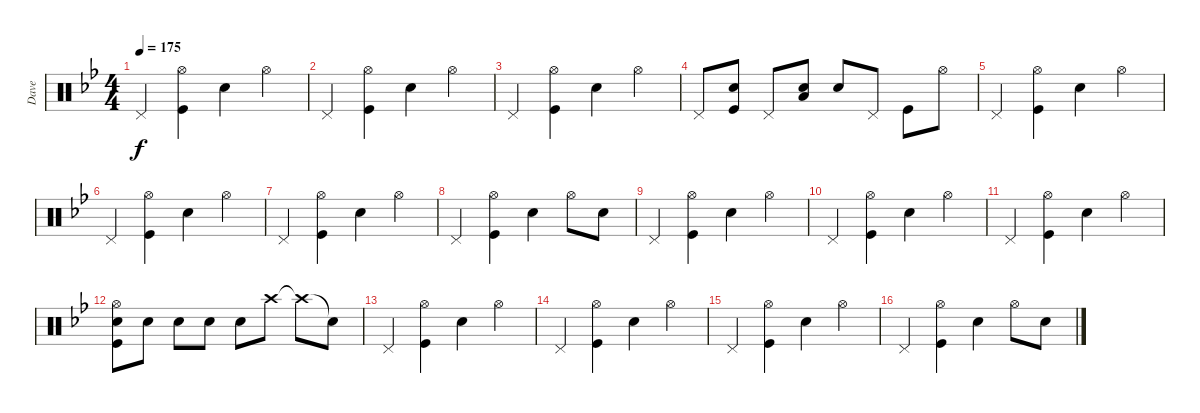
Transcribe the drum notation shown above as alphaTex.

\track ("Dave" "Dave") {instrument percussion}
\staff {score}
\articulation defaults
\ts (4 4)
\tempo 175
\clef neutral
\ks gminor "Pedal Hi-Hat (hit)".4{dy f}
("Hi-Hat (open)" "Kick (hit)").4 "Snare (hit) 2".4 "Hi-Hat (open)".4 |
"Pedal Hi-Hat (hit)".4 ("Hi-Hat (open)" "Kick (hit)").4 "Snare (hit) 2".4 "Hi-Hat (open)".4 |
"Pedal Hi-Hat (hit)".4 ("Hi-Hat (open)" "Kick (hit)").4 "Snare (hit) 2".4 "Hi-Hat (open)".4 |
"Pedal Hi-Hat (hit)".8 ("Snare (hit) 2" "Kick (hit)").8 "Pedal Hi-Hat (hit)".8 ("Low Tom (hit)" "Snare (hit) 2").8 "Snare (hit) 2".8 "Pedal Hi-Hat (hit)".8 "Kick (hit)".8 "Hi-Hat (open)".8 |
"Pedal Hi-Hat (hit)".4 ("Hi-Hat (open)" "Kick (hit)").4 "Snare (hit) 2".4 "Hi-Hat (open)".4 |
"Pedal Hi-Hat (hit)".4 ("Hi-Hat (open)" "Kick (hit)").4 "Snare (hit) 2".4 "Hi-Hat (open)".4 |
"Pedal Hi-Hat (hit)".4 ("Hi-Hat (open)" "Kick (hit)").4 "Snare (hit) 2".4 "Hi-Hat (open)".4 |
"Pedal Hi-Hat (hit)".4 ("Hi-Hat (open)" "Kick (hit)").4 "Snare (hit) 2".4 "Hi-Hat (open)".8 "Snare (hit) 2".8 |
"Pedal Hi-Hat (hit)".4 ("Hi-Hat (open)" "Kick (hit)").4 "Snare (hit) 2".4 "Hi-Hat (open)".4 |
"Pedal Hi-Hat (hit)".4 ("Hi-Hat (open)" "Kick (hit)").4 "Snare (hit) 2".4 "Hi-Hat (open)".4 |
"Pedal Hi-Hat (hit)".4 ("Hi-Hat (open)" "Kick (hit)").4 "Snare (hit) 2".4 "Hi-Hat (open)".4 |
("Hi-Hat (open)" "Snare (hit) 2" "Kick (hit)").8 "Snare (hit) 2".8 "Snare (hit) 2".8 "Snare (hit) 2".8 "Snare (hit) 2".8 "Crash high (hit)".8 "Crash high (hit)"{t}.8 "Snare (hit)"{t}.8 |
"Pedal Hi-Hat (hit)".4 ("Hi-Hat (open)" "Kick (hit)").4 "Snare (hit) 2".4 "Hi-Hat (open)".4 |
"Pedal Hi-Hat (hit)".4 ("Hi-Hat (open)" "Kick (hit)").4 "Snare (hit) 2".4 "Hi-Hat (open)".4 |
"Pedal Hi-Hat (hit)".4 ("Hi-Hat (open)" "Kick (hit)").4 "Snare (hit) 2".4 "Hi-Hat (open)".4 |
"Pedal Hi-Hat (hit)".4 ("Hi-Hat (open)" "Kick (hit)").4 "Snare (hit) 2".4 "Hi-Hat (open)".8 "Snare (hit) 2".8
